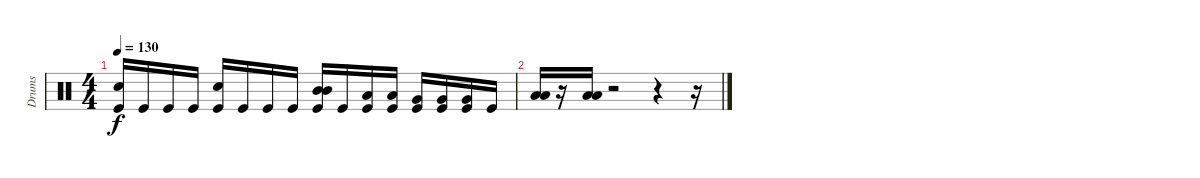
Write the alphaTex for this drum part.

\track ("Drums" "Drums") {instrument percussion}
\staff {score}
\articulation defaults
\ts (4 4)
\tempo 130
\clef neutral
\ks c
("Kick (hit)" "Snare (hit) 2").16{dy f} "Kick (hit)".16 "Kick (hit)".16 "Kick (hit)".16 ("Kick (hit)" "Snare (hit) 2").16 "Kick (hit)".16 "Kick (hit)".16 "Kick (hit)".16 ("Mid Tom (hit)" "Kick (hit)" "Mid Tom (hit)").16 "Kick (hit)".16 ("Low Tom (hit)" "Kick (hit)").16 ("Low Tom (hit)" "Kick (hit)").16 ("Very Low Tom (hit)" "Kick (hit)").16 ("Very Low Tom (hit)" "Kick (hit)").16 ("Very Low Tom (hit)" "Kick (hit)").16 "Kick (hit)".16 |
("Low Floor Tom (hit)" "Low Tom (hit)").16 r.16 ("Low Floor Tom (hit)" "Low Tom (hit)").16 r.2 r.4 r.16
